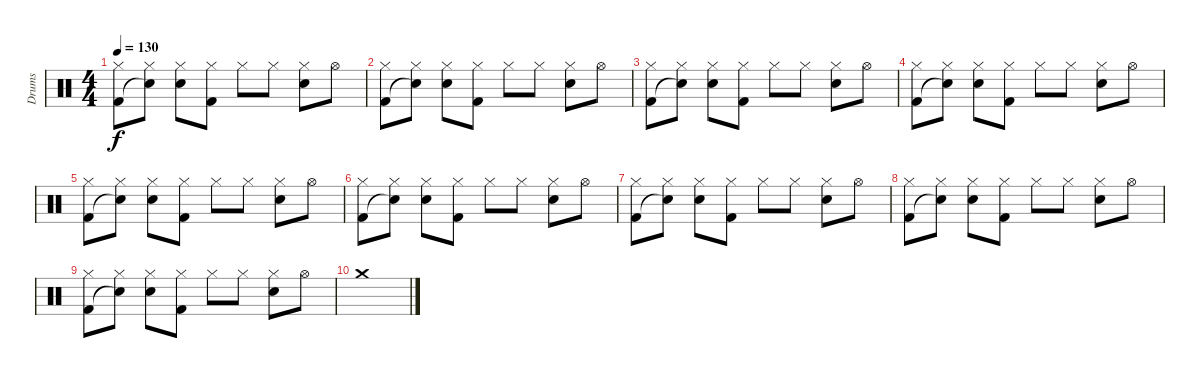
\track ("Drums" "Drums") {instrument percussion}
\staff {score}
\articulation defaults
\ts (4 4)
\tempo 130
\clef neutral
\ks c
("Hi-Hat (closed)" "Kick (hit) 2").8{dy f} ("Hi-Hat (closed)" "Snare (hit)"{t}).8 ("Hi-Hat (closed)" "Electric Snare (hit)").8 ("Hi-Hat (closed)" "Kick (hit) 2").8 "Hi-Hat (closed)".8 "Hi-Hat (closed)".8 ("Hi-Hat (closed)" "Electric Snare (hit)").8 "Hi-Hat (open)".8 |
("Hi-Hat (closed)" "Kick (hit) 2").8 ("Hi-Hat (closed)" "Snare (hit)"{t}).8 ("Hi-Hat (closed)" "Electric Snare (hit)").8 ("Hi-Hat (closed)" "Kick (hit) 2").8 "Hi-Hat (closed)".8 "Hi-Hat (closed)".8 ("Hi-Hat (closed)" "Electric Snare (hit)").8 "Hi-Hat (open)".8 |
("Hi-Hat (closed)" "Kick (hit) 2").8 ("Hi-Hat (closed)" "Snare (hit)"{t}).8 ("Hi-Hat (closed)" "Electric Snare (hit)").8 ("Hi-Hat (closed)" "Kick (hit) 2").8 "Hi-Hat (closed)".8 "Hi-Hat (closed)".8 ("Hi-Hat (closed)" "Electric Snare (hit)").8 "Hi-Hat (open)".8 |
("Hi-Hat (closed)" "Kick (hit) 2").8 ("Hi-Hat (closed)" "Snare (hit)"{t}).8 ("Hi-Hat (closed)" "Electric Snare (hit)").8 ("Hi-Hat (closed)" "Kick (hit) 2").8 "Hi-Hat (closed)".8 "Hi-Hat (closed)".8 ("Hi-Hat (closed)" "Electric Snare (hit)").8 "Hi-Hat (open)".8 |
("Hi-Hat (closed)" "Kick (hit) 2").8 ("Hi-Hat (closed)" "Snare (hit)"{t}).8 ("Hi-Hat (closed)" "Electric Snare (hit)").8 ("Hi-Hat (closed)" "Kick (hit) 2").8 "Hi-Hat (closed)".8 "Hi-Hat (closed)".8 ("Hi-Hat (closed)" "Electric Snare (hit)").8 "Hi-Hat (open)".8 |
("Hi-Hat (closed)" "Kick (hit) 2").8 ("Hi-Hat (closed)" "Snare (hit)"{t}).8 ("Hi-Hat (closed)" "Electric Snare (hit)").8 ("Hi-Hat (closed)" "Kick (hit) 2").8 "Hi-Hat (closed)".8 "Hi-Hat (closed)".8 ("Hi-Hat (closed)" "Electric Snare (hit)").8 "Hi-Hat (open)".8 |
("Hi-Hat (closed)" "Kick (hit) 2").8 ("Hi-Hat (closed)" "Snare (hit)"{t}).8 ("Hi-Hat (closed)" "Electric Snare (hit)").8 ("Hi-Hat (closed)" "Kick (hit) 2").8 "Hi-Hat (closed)".8 "Hi-Hat (closed)".8 ("Hi-Hat (closed)" "Electric Snare (hit)").8 "Hi-Hat (open)".8 |
("Hi-Hat (closed)" "Kick (hit) 2").8 ("Hi-Hat (closed)" "Snare (hit)"{t}).8 ("Hi-Hat (closed)" "Electric Snare (hit)").8 ("Hi-Hat (closed)" "Kick (hit) 2").8 "Hi-Hat (closed)".8 "Hi-Hat (closed)".8 ("Hi-Hat (closed)" "Electric Snare (hit)").8 "Hi-Hat (open)".8 |
("Hi-Hat (closed)" "Kick (hit) 2").8 ("Hi-Hat (closed)" "Snare (hit)"{t}).8 ("Hi-Hat (closed)" "Electric Snare (hit)").8 ("Hi-Hat (closed)" "Kick (hit) 2").8 "Hi-Hat (closed)".8 "Hi-Hat (closed)".8 ("Hi-Hat (closed)" "Electric Snare (hit)").8 "Hi-Hat (open)".8 |
"Crash medium (hit)".1
